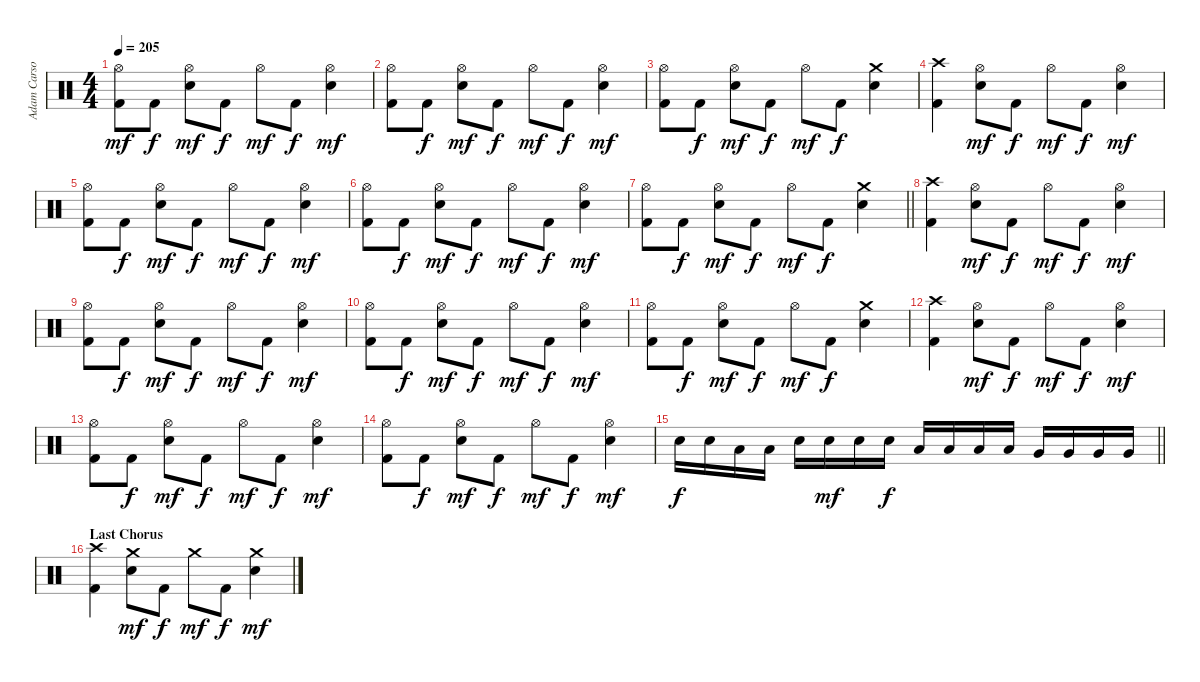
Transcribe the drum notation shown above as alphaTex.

\track ("Adam Carson" "Adam Carso") {instrument percussion}
\staff {score}
\articulation defaults
\ts (4 4)
\tempo 205
\clef neutral
\ks aminor
("Hi-Hat (open)" "Kick (hit) 2").8{dy mf} "Kick (hit) 2".8{dy f} ("Hi-Hat (open)" "Snare (hit) 2").8{dy mf} "Kick (hit) 2".8{dy f} "Hi-Hat (open)".8{dy mf} "Kick (hit) 2".8{dy f} ("Hi-Hat (open)" "Snare (hit) 2").4{dy mf} |
("Hi-Hat (open)" "Kick (hit) 2").8 "Kick (hit) 2".8{dy f} ("Hi-Hat (open)" "Snare (hit) 2").8{dy mf} "Kick (hit) 2".8{dy f} "Hi-Hat (open)".8{dy mf} "Kick (hit) 2".8{dy f} ("Hi-Hat (open)" "Snare (hit) 2").4{dy mf} |
("Hi-Hat (open)" "Kick (hit) 2").8 "Kick (hit) 2".8{dy f} ("Hi-Hat (open)" "Snare (hit) 2").8{dy mf} "Kick (hit) 2".8{dy f} "Hi-Hat (open)".8{dy mf} "Kick (hit) 2".8{dy f} ("Crash medium (hit)" "Snare (hit) 2").4 |
("Crash high (hit)" "Kick (hit) 2").4 ("Hi-Hat (open)" "Snare (hit) 2").8{dy mf} "Kick (hit) 2".8{dy f} "Hi-Hat (open)".8{dy mf} "Kick (hit) 2".8{dy f} ("Hi-Hat (open)" "Snare (hit) 2").4{dy mf} |
("Hi-Hat (open)" "Kick (hit) 2").8 "Kick (hit) 2".8{dy f} ("Hi-Hat (open)" "Snare (hit) 2").8{dy mf} "Kick (hit) 2".8{dy f} "Hi-Hat (open)".8{dy mf} "Kick (hit) 2".8{dy f} ("Hi-Hat (open)" "Snare (hit) 2").4{dy mf} |
("Hi-Hat (open)" "Kick (hit) 2").8 "Kick (hit) 2".8{dy f} ("Hi-Hat (open)" "Snare (hit) 2").8{dy mf} "Kick (hit) 2".8{dy f} "Hi-Hat (open)".8{dy mf} "Kick (hit) 2".8{dy f} ("Hi-Hat (open)" "Snare (hit) 2").4{dy mf} |
\barLineRight lightlight
("Hi-Hat (open)" "Kick (hit) 2").8 "Kick (hit) 2".8{dy f} ("Hi-Hat (open)" "Snare (hit) 2").8{dy mf} "Kick (hit) 2".8{dy f} "Hi-Hat (open)".8{dy mf} "Kick (hit) 2".8{dy f} ("Crash medium (hit)" "Snare (hit) 2").4 |
("Crash high (hit)" "Kick (hit) 2").4 ("Hi-Hat (open)" "Snare (hit) 2").8{dy mf} "Kick (hit) 2".8{dy f} "Hi-Hat (open)".8{dy mf} "Kick (hit) 2".8{dy f} ("Hi-Hat (open)" "Snare (hit) 2").4{dy mf} |
("Hi-Hat (open)" "Kick (hit) 2").8 "Kick (hit) 2".8{dy f} ("Hi-Hat (open)" "Snare (hit) 2").8{dy mf} "Kick (hit) 2".8{dy f} "Hi-Hat (open)".8{dy mf} "Kick (hit) 2".8{dy f} ("Hi-Hat (open)" "Snare (hit) 2").4{dy mf} |
("Hi-Hat (open)" "Kick (hit) 2").8 "Kick (hit) 2".8{dy f} ("Hi-Hat (open)" "Snare (hit) 2").8{dy mf} "Kick (hit) 2".8{dy f} "Hi-Hat (open)".8{dy mf} "Kick (hit) 2".8{dy f} ("Hi-Hat (open)" "Snare (hit) 2").4{dy mf} |
("Hi-Hat (open)" "Kick (hit) 2").8 "Kick (hit) 2".8{dy f} ("Hi-Hat (open)" "Snare (hit) 2").8{dy mf} "Kick (hit) 2".8{dy f} "Hi-Hat (open)".8{dy mf} "Kick (hit) 2".8{dy f} ("Crash medium (hit)" "Snare (hit) 2").4 |
("Crash high (hit)" "Kick (hit) 2").4 ("Hi-Hat (open)" "Snare (hit) 2").8{dy mf} "Kick (hit) 2".8{dy f} "Hi-Hat (open)".8{dy mf} "Kick (hit) 2".8{dy f} ("Hi-Hat (open)" "Snare (hit) 2").4{dy mf} |
("Hi-Hat (open)" "Kick (hit) 2").8 "Kick (hit) 2".8{dy f} ("Hi-Hat (open)" "Snare (hit) 2").8{dy mf} "Kick (hit) 2".8{dy f} "Hi-Hat (open)".8{dy mf} "Kick (hit) 2".8{dy f} ("Hi-Hat (open)" "Snare (hit) 2").4{dy mf} |
("Hi-Hat (open)" "Kick (hit) 2").8 "Kick (hit) 2".8{dy f} ("Hi-Hat (open)" "Snare (hit) 2").8{dy mf} "Kick (hit) 2".8{dy f} "Hi-Hat (open)".8{dy mf} "Kick (hit) 2".8{dy f} ("Hi-Hat (open)" "Snare (hit) 2").4{dy mf} |
\barLineRight lightlight "Snare (hit) 2".16{dy f} "Snare (hit) 2".16 "Low Tom (hit)".16 "Low Tom (hit)".16 "Snare (hit) 2".16 "Snare (hit) 2".16{dy mf} "Snare (hit) 2".16 "Snare (hit) 2".16{dy f} "Low Tom (hit)".16 "Low Tom (hit)".16 "Low Tom (hit)".16 "Low Tom (hit)".16 "Very Low Tom (hit)".16 "Very Low Tom (hit)".16 "Very Low Tom (hit)".16 "Very Low Tom (hit)".16
|
\section ("" "Last Chorus")
("Crash high (hit)" "Kick (hit) 2").4 ("Crash medium (hit)" "Snare (hit) 2").8{dy mf} "Kick (hit) 2".8{dy f} "Crash medium (hit)".8{dy mf} "Kick (hit) 2".8{dy f} ("Crash medium (hit)" "Snare (hit) 2").4{dy mf}
